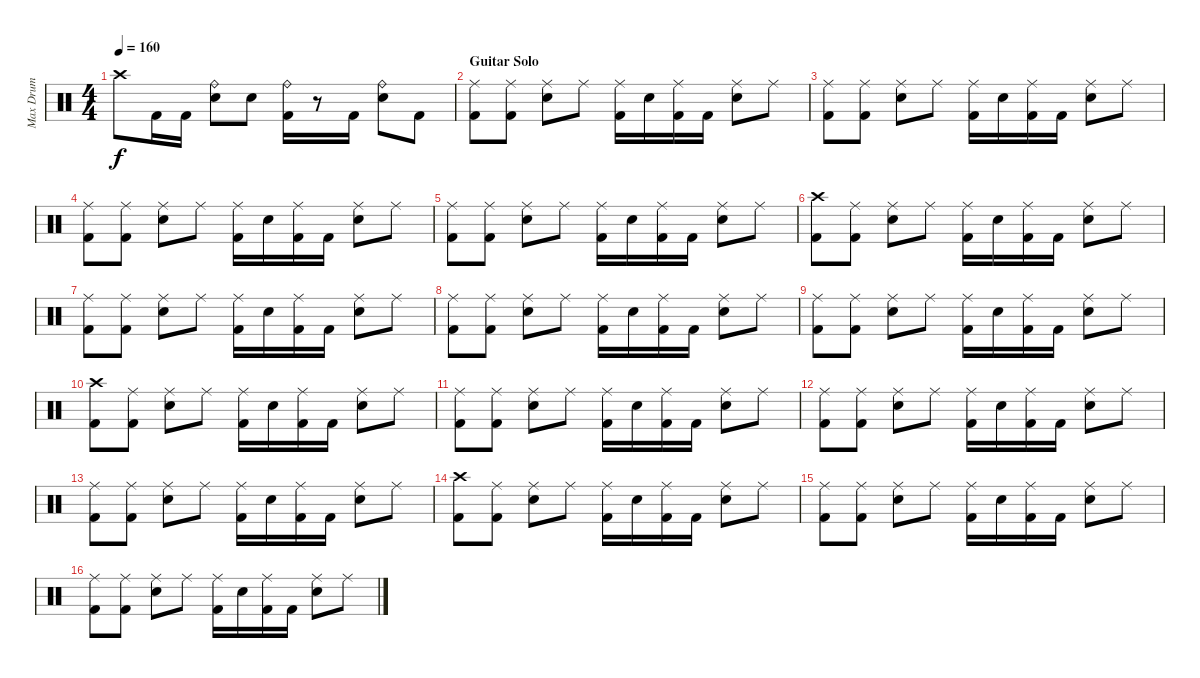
\track ("Max Drum" "Max Drum") {instrument percussion}
\staff {score}
\articulation defaults
\ts (4 4)
\tempo 160
\clef neutral
\ks c "Crash high (hit)".8{dy f} "Kick (hit) 2".16 "Kick (hit) 2".16
("Ride (bell)" "Snare (hit) 2").8 "Snare (hit) 2".8 ("Ride (bell)" "Kick (hit) 2").16 r.8 "Kick (hit) 2".16 ("Ride (bell)" "Snare (hit) 2").8 "Kick (hit) 2".8 |
\section ("" "Guitar Solo")
("Ride (middle)" "Kick (hit) 2").8 ("Ride (middle)" "Kick (hit) 2").8 ("Ride (middle)" "Snare (hit) 2").8 "Ride (middle)".8 ("Ride (middle)" "Kick (hit) 2").16 "Snare (hit) 2".16 ("Ride (middle)" "Kick (hit) 2").16 "Kick (hit) 2".16 ("Ride (middle)" "Snare (hit) 2").8 "Ride (middle)".8 |
("Ride (middle)" "Kick (hit) 2").8 ("Ride (middle)" "Kick (hit) 2").8 ("Ride (middle)" "Snare (hit) 2").8 "Ride (middle)".8 ("Ride (middle)" "Kick (hit) 2").16 "Snare (hit) 2".16 ("Ride (middle)" "Kick (hit) 2").16 "Kick (hit) 2".16 ("Ride (middle)" "Snare (hit) 2").8 "Ride (middle)".8 |
("Ride (middle)" "Kick (hit) 2").8 ("Ride (middle)" "Kick (hit) 2").8 ("Ride (middle)" "Snare (hit) 2").8 "Ride (middle)".8 ("Ride (middle)" "Kick (hit) 2").16 "Snare (hit) 2".16 ("Ride (middle)" "Kick (hit) 2").16 "Kick (hit) 2".16 ("Ride (middle)" "Snare (hit) 2").8 "Ride (middle)".8 |
("Ride (middle)" "Kick (hit) 2").8 ("Ride (middle)" "Kick (hit) 2").8 ("Ride (middle)" "Snare (hit) 2").8 "Ride (middle)".8 ("Ride (middle)" "Kick (hit) 2").16 "Snare (hit) 2".16 ("Ride (middle)" "Kick (hit) 2").16 "Kick (hit) 2".16 ("Ride (middle)" "Snare (hit) 2").8 "Ride (middle)".8 |
("Crash high (hit)" "Kick (hit) 2").8 ("Ride (middle)" "Kick (hit) 2").8 ("Ride (middle)" "Snare (hit) 2").8 "Ride (middle)".8 ("Ride (middle)" "Kick (hit) 2").16 "Snare (hit) 2".16 ("Ride (middle)" "Kick (hit) 2").16 "Kick (hit) 2".16 ("Ride (middle)" "Snare (hit) 2").8 "Ride (middle)".8 |
("Ride (middle)" "Kick (hit) 2").8 ("Ride (middle)" "Kick (hit) 2").8 ("Ride (middle)" "Snare (hit) 2").8 "Ride (middle)".8 ("Ride (middle)" "Kick (hit) 2").16 "Snare (hit) 2".16 ("Ride (middle)" "Kick (hit) 2").16 "Kick (hit) 2".16 ("Ride (middle)" "Snare (hit) 2").8 "Ride (middle)".8 |
("Ride (middle)" "Kick (hit) 2").8 ("Ride (middle)" "Kick (hit) 2").8 ("Ride (middle)" "Snare (hit) 2").8 "Ride (middle)".8 ("Ride (middle)" "Kick (hit) 2").16 "Snare (hit) 2".16 ("Ride (middle)" "Kick (hit) 2").16 "Kick (hit) 2".16 ("Ride (middle)" "Snare (hit) 2").8 "Ride (middle)".8 |
("Ride (middle)" "Kick (hit) 2").8 ("Ride (middle)" "Kick (hit) 2").8 ("Ride (middle)" "Snare (hit) 2").8 "Ride (middle)".8 ("Ride (middle)" "Kick (hit) 2").16 "Snare (hit) 2".16 ("Ride (middle)" "Kick (hit) 2").16 "Kick (hit) 2".16 ("Ride (middle)" "Snare (hit) 2").8 "Ride (middle)".8 |
("Crash high (hit)" "Kick (hit) 2").8 ("Ride (middle)" "Kick (hit) 2").8 ("Ride (middle)" "Snare (hit) 2").8 "Ride (middle)".8 ("Ride (middle)" "Kick (hit) 2").16 "Snare (hit) 2".16 ("Ride (middle)" "Kick (hit) 2").16 "Kick (hit) 2".16 ("Ride (middle)" "Snare (hit) 2").8 "Ride (middle)".8 |
("Ride (middle)" "Kick (hit) 2").8 ("Ride (middle)" "Kick (hit) 2").8 ("Ride (middle)" "Snare (hit) 2").8 "Ride (middle)".8 ("Ride (middle)" "Kick (hit) 2").16 "Snare (hit) 2".16 ("Ride (middle)" "Kick (hit) 2").16 "Kick (hit) 2".16 ("Ride (middle)" "Snare (hit) 2").8 "Ride (middle)".8 |
("Ride (middle)" "Kick (hit) 2").8 ("Ride (middle)" "Kick (hit) 2").8 ("Ride (middle)" "Snare (hit) 2").8 "Ride (middle)".8 ("Ride (middle)" "Kick (hit) 2").16 "Snare (hit) 2".16 ("Ride (middle)" "Kick (hit) 2").16 "Kick (hit) 2".16 ("Ride (middle)" "Snare (hit) 2").8 "Ride (middle)".8 |
("Ride (middle)" "Kick (hit) 2").8 ("Ride (middle)" "Kick (hit) 2").8 ("Ride (middle)" "Snare (hit) 2").8 "Ride (middle)".8 ("Ride (middle)" "Kick (hit) 2").16 "Snare (hit) 2".16 ("Ride (middle)" "Kick (hit) 2").16 "Kick (hit) 2".16 ("Ride (middle)" "Snare (hit) 2").8 "Ride (middle)".8 |
("Crash high (hit)" "Kick (hit) 2").8 ("Ride (middle)" "Kick (hit) 2").8 ("Ride (middle)" "Snare (hit) 2").8 "Ride (middle)".8 ("Ride (middle)" "Kick (hit) 2").16 "Snare (hit) 2".16 ("Ride (middle)" "Kick (hit) 2").16 "Kick (hit) 2".16 ("Ride (middle)" "Snare (hit) 2").8 "Ride (middle)".8 |
("Ride (middle)" "Kick (hit) 2").8 ("Ride (middle)" "Kick (hit) 2").8 ("Ride (middle)" "Snare (hit) 2").8 "Ride (middle)".8 ("Ride (middle)" "Kick (hit) 2").16 "Snare (hit) 2".16 ("Ride (middle)" "Kick (hit) 2").16 "Kick (hit) 2".16 ("Ride (middle)" "Snare (hit) 2").8 "Ride (middle)".8 |
("Ride (middle)" "Kick (hit) 2").8 ("Ride (middle)" "Kick (hit) 2").8 ("Ride (middle)" "Snare (hit) 2").8 "Ride (middle)".8 ("Ride (middle)" "Kick (hit) 2").16 "Snare (hit) 2".16 ("Ride (middle)" "Kick (hit) 2").16 "Kick (hit) 2".16 ("Ride (middle)" "Snare (hit) 2").8 "Ride (middle)".8
